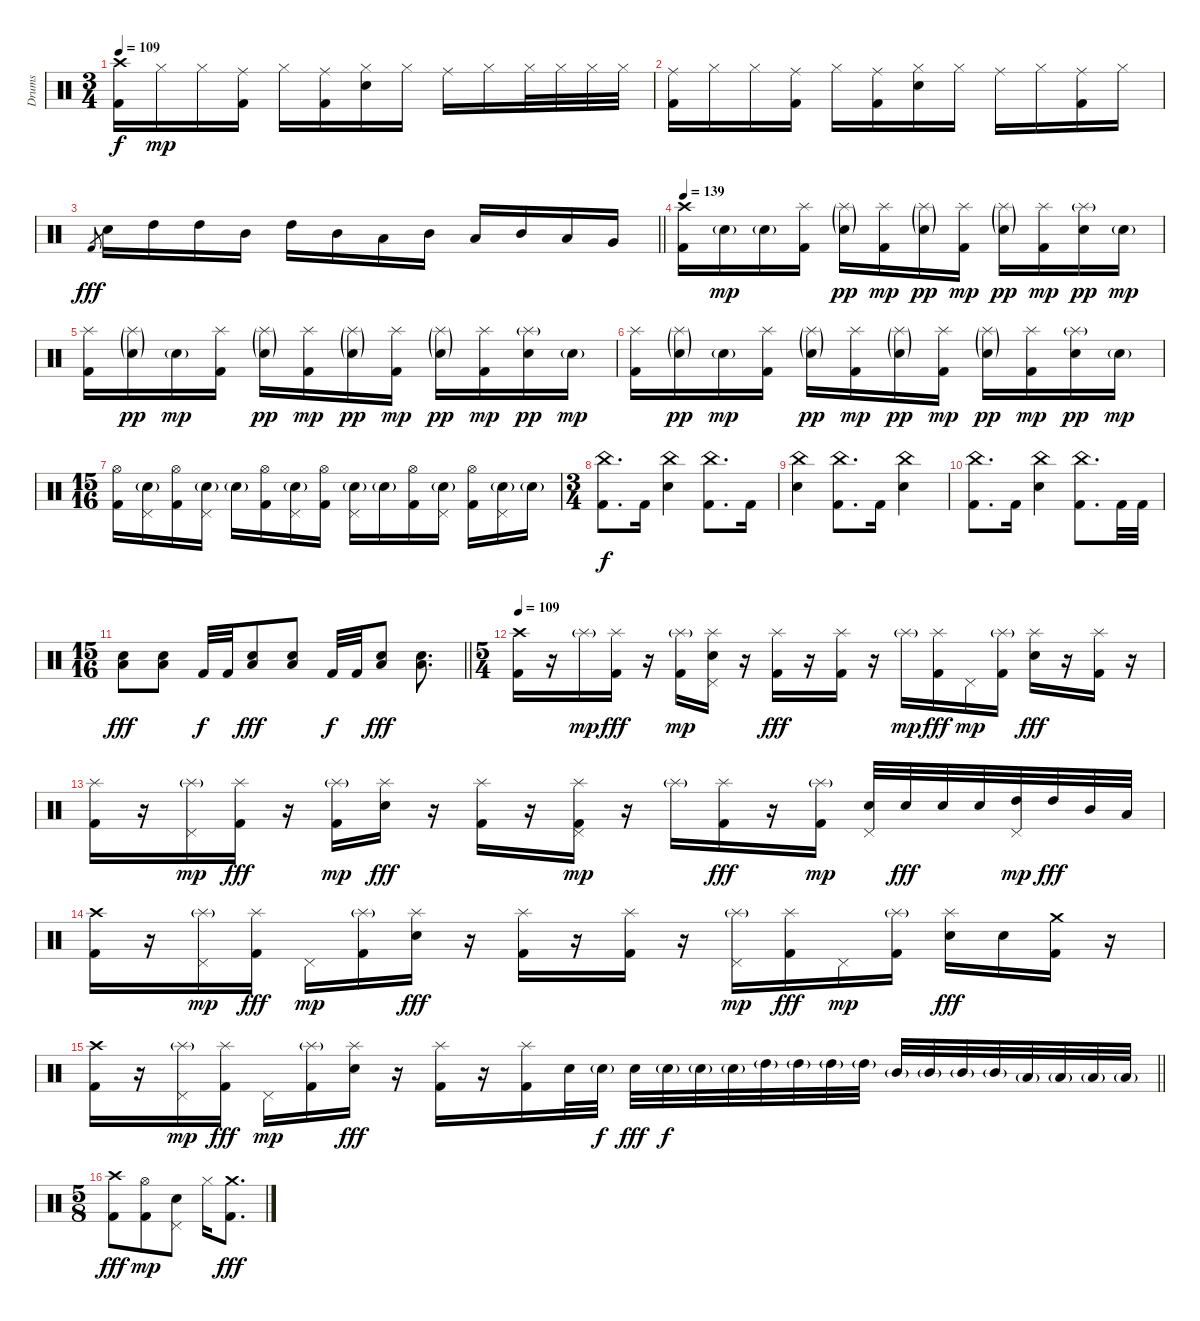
\track ("Drums" "Drums") {instrument percussion}
\staff {score}
\articulation defaults
\ts (3 4)
\tempo 109
\clef neutral
\ks c
("Kick (hit) 2" "Crash high (hit)").16{dy f} "Hi-Hat (closed)".16{dy mp} "Hi-Hat (closed)".16 ("Kick (hit) 2" "Ride (middle)").16 "Hi-Hat (closed)".16 ("Kick (hit) 2" "Ride (middle)").16 ("Electric Snare (hit)" "Hi-Hat (closed)").16 "Hi-Hat (closed)".16 "Ride (middle)".16 "Hi-Hat (closed)".16 "Hi-Hat (closed)".32 "Hi-Hat (closed)".32 "Hi-Hat (closed)".32 "Hi-Hat (closed)".32 |
("Kick (hit) 2" "Ride (middle)").16 "Hi-Hat (closed)".16 "Hi-Hat (closed)".16 ("Kick (hit) 2" "Ride (middle)").16 "Hi-Hat (closed)".16 ("Kick (hit) 2" "Ride (middle)").16 ("Electric Snare (hit)" "Hi-Hat (closed)").16 "Hi-Hat (closed)".16 "Ride (middle)".16 "Hi-Hat (closed)".16 ("Kick (hit) 2" "Ride (middle)").16 "Hi-Hat (closed)".16 |
\barLineRight lightlight "Kick (hit) 2".8{gr dy fff} "Electric Snare (hit)".16 "High Tom (hit)".16 "High Tom (hit)".16 "Mid Tom (hit)".16 "High Tom (hit)".16 "Mid Tom (hit)".16 "Low Tom (hit)".16 "Mid Tom (hit)".16 "Low Tom (hit)".16 "Mid Tom (hit)".16 "Low Tom (hit)".16 "Very Low Tom (hit)".16
|
\tempo 139
("Kick (hit) 2" "Crash high (hit)").16 "Electric Snare (hit)"{g}.16{dy mp} "Electric Snare (hit)"{g}.16 ("Kick (hit) 2" "Splash (hit)").16 ("Electric Snare (hit)"{g} "Splash (hit)"{g}).16{dy pp} ("Kick (hit) 2" "Splash (hit)").16{dy mp} ("Electric Snare (hit)"{g} "Splash (hit)"{g}).16{dy pp} ("Kick (hit) 2" "Splash (hit)").16{dy mp} ("Electric Snare (hit)"{g} "Splash (hit)"{g}).16{dy pp} ("Kick (hit) 2" "Splash (hit)").16{dy mp} ("Electric Snare (hit)" "Splash (hit)"{g}).16{dy pp} "Electric Snare (hit)"{g}.16{dy mp} |
("Kick (hit) 2" "Splash (hit)").16 ("Electric Snare (hit)"{g} "Splash (hit)"{g}).16{dy pp} "Electric Snare (hit)"{g}.16{dy mp} ("Kick (hit) 2" "Splash (hit)").16 ("Electric Snare (hit)"{g} "Splash (hit)"{g}).16{dy pp} ("Kick (hit) 2" "Splash (hit)").16{dy mp} ("Electric Snare (hit)"{g} "Splash (hit)"{g}).16{dy pp} ("Kick (hit) 2" "Splash (hit)").16{dy mp} ("Electric Snare (hit)"{g} "Splash (hit)"{g}).16{dy pp} ("Kick (hit) 2" "Splash (hit)").16{dy mp} ("Electric Snare (hit)" "Splash (hit)"{g}).16{dy pp} "Electric Snare (hit)"{g}.16{dy mp} |
("Kick (hit) 2" "Splash (hit)").16 ("Electric Snare (hit)"{g} "Splash (hit)"{g}).16{dy pp} "Electric Snare (hit)"{g}.16{dy mp} ("Kick (hit) 2" "Splash (hit)").16 ("Electric Snare (hit)"{g} "Splash (hit)"{g}).16{dy pp} ("Kick (hit) 2" "Splash (hit)").16{dy mp} ("Electric Snare (hit)"{g} "Splash (hit)"{g}).16{dy pp} ("Kick (hit) 2" "Splash (hit)").16{dy mp} ("Electric Snare (hit)"{g} "Splash (hit)"{g}).16{dy pp} ("Kick (hit) 2" "Splash (hit)").16{dy mp} ("Electric Snare (hit)" "Splash (hit)"{g}).16{dy pp} "Electric Snare (hit)"{g}.16{dy mp} |
\ts (15 16)
("Kick (hit) 2" "Hi-Hat (open)").16 ("Electric Snare (hit)"{g} "Pedal Hi-Hat (hit)").16 ("Kick (hit) 2" "Hi-Hat (open)").16 ("Electric Snare (hit)"{g} "Pedal Hi-Hat (hit)").16 "Electric Snare (hit)"{g}.16 ("Kick (hit) 2" "Hi-Hat (open)").16 ("Electric Snare (hit)"{g} "Pedal Hi-Hat (hit)").16 ("Kick (hit) 2" "Hi-Hat (open)").16 ("Electric Snare (hit)"{g} "Pedal Hi-Hat (hit)").16 "Electric Snare (hit)"{g}.16 ("Kick (hit) 2" "Hi-Hat (open)").16 ("Electric Snare (hit)"{g} "Pedal Hi-Hat (hit)").16 ("Kick (hit) 2" "Hi-Hat (open)").16 ("Electric Snare (hit)"{g} "Pedal Hi-Hat (hit)").16 "Electric Snare (hit)"{g}.16 |
\ts (3 4)
("Kick (hit) 2" "China (hit)").8{d dy f} "Kick (hit) 2".16 ("Electric Snare (hit)" "China (hit)").4 ("Kick (hit) 2" "China (hit)").8{d} "Kick (hit) 2".16 |
("Electric Snare (hit)" "China (hit)").4 ("Kick (hit) 2" "China (hit)").8{d} "Kick (hit) 2".16 ("Electric Snare (hit)" "China (hit)").4 |
("Kick (hit) 2" "China (hit)").8{d} "Kick (hit) 2".16 ("Electric Snare (hit)" "China (hit)").4 ("Kick (hit) 2" "China (hit)").8{d} "Kick (hit) 2".32 "Kick (hit) 2".32 |
\ts (15 16)
\barLineRight lightlight
("Electric Snare (hit)" "Low Floor Tom (hit)").8{dy fff} ("Electric Snare (hit)" "Low Floor Tom (hit)").8 "Kick (hit) 2".32{dy f} "Kick (hit) 2".32 ("Electric Snare (hit)" "Low Floor Tom (hit)").8{dy fff} ("Electric Snare (hit)" "Low Floor Tom (hit)").8 "Kick (hit) 2".32{dy f} "Kick (hit) 2".32 ("Electric Snare (hit)" "Low Floor Tom (hit)").8{dy fff} ("Electric Snare (hit)" "Low Floor Tom (hit)").8{d} |
\ts (5 4)
\tempo 109
("Kick (hit) 2" "Crash high (hit)").16 r.16 "Splash (hit)"{g}.16{dy mp} ("Kick (hit) 2" "Splash (hit)").16{dy fff} r.16 ("Kick (hit) 2" "Splash (hit)"{g}).16{dy mp} ("Electric Snare (hit)" "Pedal Hi-Hat (hit)" "Splash (hit)").16 r.16 ("Kick (hit) 2" "Splash (hit)").16{dy fff} r.16 ("Kick (hit) 2" "Splash (hit)").16 r.16 "Splash (hit)"{g}.16{dy mp} ("Kick (hit) 2" "Splash (hit)").16{dy fff} "Pedal Hi-Hat (hit)".16{dy mp} ("Kick (hit) 2" "Splash (hit)"{g}).16 ("Electric Snare (hit)" "Splash (hit)").16{dy fff} r.16 ("Kick (hit) 2" "Splash (hit)").16 r.16 |
("Kick (hit) 2" "Splash (hit)").16 r.16 ("Pedal Hi-Hat (hit)" "Splash (hit)"{g}).16{dy mp} ("Kick (hit) 2" "Splash (hit)").16{dy fff} r.16 ("Kick (hit) 2" "Splash (hit)"{g}).16{dy mp} ("Electric Snare (hit)" "Splash (hit)").16{dy fff} r.16 ("Kick (hit) 2" "Splash (hit)").16 r.16 ("Kick (hit) 2" "Pedal Hi-Hat (hit)" "Splash (hit)").16{dy mp} r.16 "Splash (hit)"{g}.16 ("Kick (hit) 2" "Splash (hit)").16{dy fff} r.16 ("Kick (hit) 2" "Splash (hit)"{g}).16{dy mp} ("Electric Snare (hit)" "Pedal Hi-Hat (hit)").32 "Electric Snare (hit)".32{dy fff} "Electric Snare (hit)".32 "Electric Snare (hit)".32 ("High Tom (hit)" "Pedal Hi-Hat (hit)").32{dy mp} "High Tom (hit)".32{dy fff} "Mid Tom (hit)".32 "Low Tom (hit)".32 |
("Kick (hit) 2" "Crash high (hit)").16 r.16 ("Pedal Hi-Hat (hit)" "Splash (hit)"{g}).16{dy mp} ("Kick (hit) 2" "Splash (hit)").16{dy fff} "Pedal Hi-Hat (hit)".16{dy mp} ("Kick (hit) 2" "Splash (hit)"{g}).16 ("Electric Snare (hit)" "Splash (hit)").16{dy fff} r.16 ("Kick (hit) 2" "Splash (hit)").16 r.16 ("Kick (hit) 2" "Splash (hit)").16 r.16 ("Pedal Hi-Hat (hit)" "Splash (hit)"{g}).16{dy mp} ("Kick (hit) 2" "Splash (hit)").16{dy fff} "Pedal Hi-Hat (hit)".16{dy mp} ("Kick (hit) 2" "Splash (hit)"{g}).16 ("Electric Snare (hit)" "Splash (hit)").16{dy fff} "Electric Snare (hit)".16 ("Kick (hit) 2" "Crash medium (hit)").16 r.16 |
\barLineRight lightlight
("Kick (hit) 2" "Crash high (hit)").16 r.16 ("Pedal Hi-Hat (hit)" "Splash (hit)"{g}).16{dy mp} ("Kick (hit) 2" "Splash (hit)").16{dy fff} "Pedal Hi-Hat (hit)".16{dy mp} ("Kick (hit) 2" "Splash (hit)"{g}).16 ("Electric Snare (hit)" "Splash (hit)").16{dy fff} r.16 ("Kick (hit) 2" "Splash (hit)").16 r.16 ("Kick (hit) 2" "Splash (hit)").16 "Electric Snare (hit)".32 "Electric Snare (hit)"{g}.32{dy f} "Electric Snare (hit)".32{dy fff} "Electric Snare (hit)"{g}.32{dy f} "Electric Snare (hit)"{g}.32 "Electric Snare (hit)"{g}.32 "High Tom (hit)"{g}.32 "High Tom (hit)"{g}.32 "High Tom (hit)"{g}.32 "High Tom (hit)"{g}.32 "Mid Tom (hit)"{g}.32 "Mid Tom (hit)"{g}.32 "Mid Tom (hit)"{g}.32 "Mid Tom (hit)"{g}.32 "Low Tom (hit)"{g}.32 "Low Tom (hit)"{g}.32 "Low Tom (hit)"{g}.32 "Low Tom (hit)"{g}.32 |
\ts (5 8)
("Kick (hit) 2" "Crash high (hit)").8{dy fff} ("Kick (hit) 2" "Hi-Hat (open)").8{dy mp} ("Electric Snare (hit)" "Pedal Hi-Hat (hit)").8 "Hi-Hat (closed)".16 ("Kick (hit) 2" "Crash medium (hit)").8{d dy fff}
